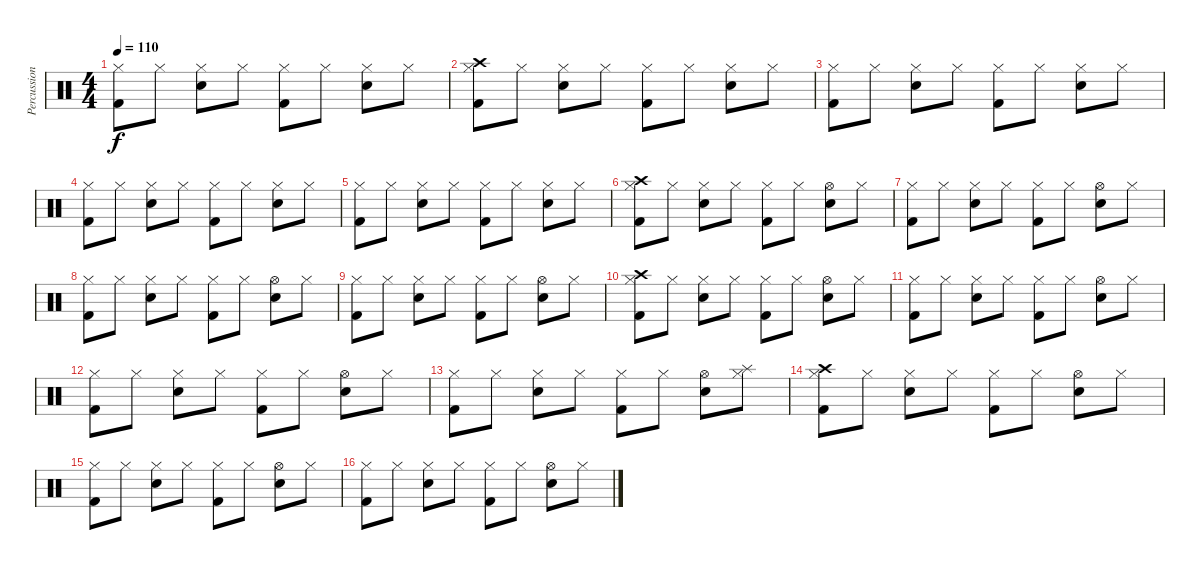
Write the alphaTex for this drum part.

\track ("Percussion" "Percussion") {instrument percussion}
\staff {score}
\articulation defaults
\ts (4 4)
\tempo 110
\clef neutral
\ks c
("Hi-Hat (closed)" "Kick (hit) 2").8{dy f} "Hi-Hat (closed)".8 ("Snare (hit) 2" "Hi-Hat (closed)").8 "Hi-Hat (closed)".8 ("Hi-Hat (closed)" "Kick (hit) 2").8 "Hi-Hat (closed)".8 ("Snare (hit) 2" "Hi-Hat (closed)").8 "Hi-Hat (closed)".8 |
("Crash high (hit)" "Hi-Hat (closed)" "Kick (hit) 2").8 "Hi-Hat (closed)".8 ("Snare (hit) 2" "Hi-Hat (closed)").8 "Hi-Hat (closed)".8 ("Hi-Hat (closed)" "Kick (hit) 2").8 "Hi-Hat (closed)".8 ("Snare (hit) 2" "Hi-Hat (closed)").8 "Hi-Hat (closed)".8 |
("Hi-Hat (closed)" "Kick (hit) 2").8 "Hi-Hat (closed)".8 ("Snare (hit) 2" "Hi-Hat (closed)").8 "Hi-Hat (closed)".8 ("Hi-Hat (closed)" "Kick (hit) 2").8 "Hi-Hat (closed)".8 ("Snare (hit) 2" "Hi-Hat (closed)").8 "Hi-Hat (closed)".8 |
("Hi-Hat (closed)" "Kick (hit) 2").8 "Hi-Hat (closed)".8 ("Snare (hit) 2" "Hi-Hat (closed)").8 "Hi-Hat (closed)".8 ("Hi-Hat (closed)" "Kick (hit) 2").8 "Hi-Hat (closed)".8 ("Snare (hit) 2" "Hi-Hat (closed)").8 "Hi-Hat (closed)".8 |
("Hi-Hat (closed)" "Kick (hit) 2").8 "Hi-Hat (closed)".8 ("Snare (hit) 2" "Hi-Hat (closed)").8 "Hi-Hat (closed)".8 ("Hi-Hat (closed)" "Kick (hit) 2").8 "Hi-Hat (closed)".8 ("Snare (hit) 2" "Hi-Hat (closed)").8 "Hi-Hat (closed)".8 |
("Crash high (hit)" "Hi-Hat (closed)" "Kick (hit) 2").8 "Hi-Hat (closed)".8 ("Snare (hit) 2" "Hi-Hat (closed)").8 "Hi-Hat (closed)".8 ("Hi-Hat (closed)" "Kick (hit) 2").8 "Hi-Hat (closed)".8 ("Snare (hit) 2" "Hi-Hat (open)").8 "Hi-Hat (closed)".8 |
("Hi-Hat (closed)" "Kick (hit) 2").8 "Hi-Hat (closed)".8 ("Snare (hit) 2" "Hi-Hat (closed)").8 "Hi-Hat (closed)".8 ("Hi-Hat (closed)" "Kick (hit) 2").8 "Hi-Hat (closed)".8 ("Snare (hit) 2" "Hi-Hat (open)").8 "Hi-Hat (closed)".8 |
("Hi-Hat (closed)" "Kick (hit) 2").8 "Hi-Hat (closed)".8 ("Snare (hit) 2" "Hi-Hat (closed)").8 "Hi-Hat (closed)".8 ("Hi-Hat (closed)" "Kick (hit) 2").8 "Hi-Hat (closed)".8 ("Snare (hit) 2" "Hi-Hat (open)").8 "Hi-Hat (closed)".8 |
("Hi-Hat (closed)" "Kick (hit) 2").8 "Hi-Hat (closed)".8 ("Snare (hit) 2" "Hi-Hat (closed)").8 "Hi-Hat (closed)".8 ("Hi-Hat (closed)" "Kick (hit) 2").8 "Hi-Hat (closed)".8 ("Snare (hit) 2" "Hi-Hat (open)").8 "Hi-Hat (closed)".8 |
("Crash high (hit)" "Hi-Hat (closed)" "Kick (hit) 2").8 "Hi-Hat (closed)".8 ("Snare (hit) 2" "Hi-Hat (closed)").8 "Hi-Hat (closed)".8 ("Hi-Hat (closed)" "Kick (hit) 2").8 "Hi-Hat (closed)".8 ("Snare (hit) 2" "Hi-Hat (open)").8 "Hi-Hat (closed)".8 |
("Hi-Hat (closed)" "Kick (hit) 2").8 "Hi-Hat (closed)".8 ("Snare (hit) 2" "Hi-Hat (closed)").8 "Hi-Hat (closed)".8 ("Hi-Hat (closed)" "Kick (hit) 2").8 "Hi-Hat (closed)".8 ("Snare (hit) 2" "Hi-Hat (open)").8 "Hi-Hat (closed)".8 |
("Hi-Hat (closed)" "Kick (hit) 2").8 "Hi-Hat (closed)".8 ("Snare (hit) 2" "Hi-Hat (closed)").8 "Hi-Hat (closed)".8 ("Hi-Hat (closed)" "Kick (hit) 2").8 "Hi-Hat (closed)".8 ("Snare (hit) 2" "Hi-Hat (open)").8 "Hi-Hat (closed)".8 |
("Hi-Hat (closed)" "Kick (hit) 2").8 "Hi-Hat (closed)".8 ("Snare (hit) 2" "Hi-Hat (closed)").8 "Hi-Hat (closed)".8 ("Hi-Hat (closed)" "Kick (hit) 2").8 "Hi-Hat (closed)".8 ("Snare (hit) 2" "Hi-Hat (open)").8 ("Splash (hit)" "Hi-Hat (closed)").8 |
("Crash high (hit)" "Hi-Hat (closed)" "Kick (hit) 2").8 "Hi-Hat (closed)".8 ("Snare (hit) 2" "Hi-Hat (closed)").8 "Hi-Hat (closed)".8 ("Hi-Hat (closed)" "Kick (hit) 2").8 "Hi-Hat (closed)".8 ("Snare (hit) 2" "Hi-Hat (open)").8 "Hi-Hat (closed)".8 |
("Hi-Hat (closed)" "Kick (hit) 2").8 "Hi-Hat (closed)".8 ("Snare (hit) 2" "Hi-Hat (closed)").8 "Hi-Hat (closed)".8 ("Hi-Hat (closed)" "Kick (hit) 2").8 "Hi-Hat (closed)".8 ("Snare (hit) 2" "Hi-Hat (open)").8 "Hi-Hat (closed)".8 |
("Hi-Hat (closed)" "Kick (hit) 2").8 "Hi-Hat (closed)".8 ("Snare (hit) 2" "Hi-Hat (closed)").8 "Hi-Hat (closed)".8 ("Hi-Hat (closed)" "Kick (hit) 2").8 "Hi-Hat (closed)".8 ("Snare (hit) 2" "Hi-Hat (open)").8 "Hi-Hat (closed)".8
